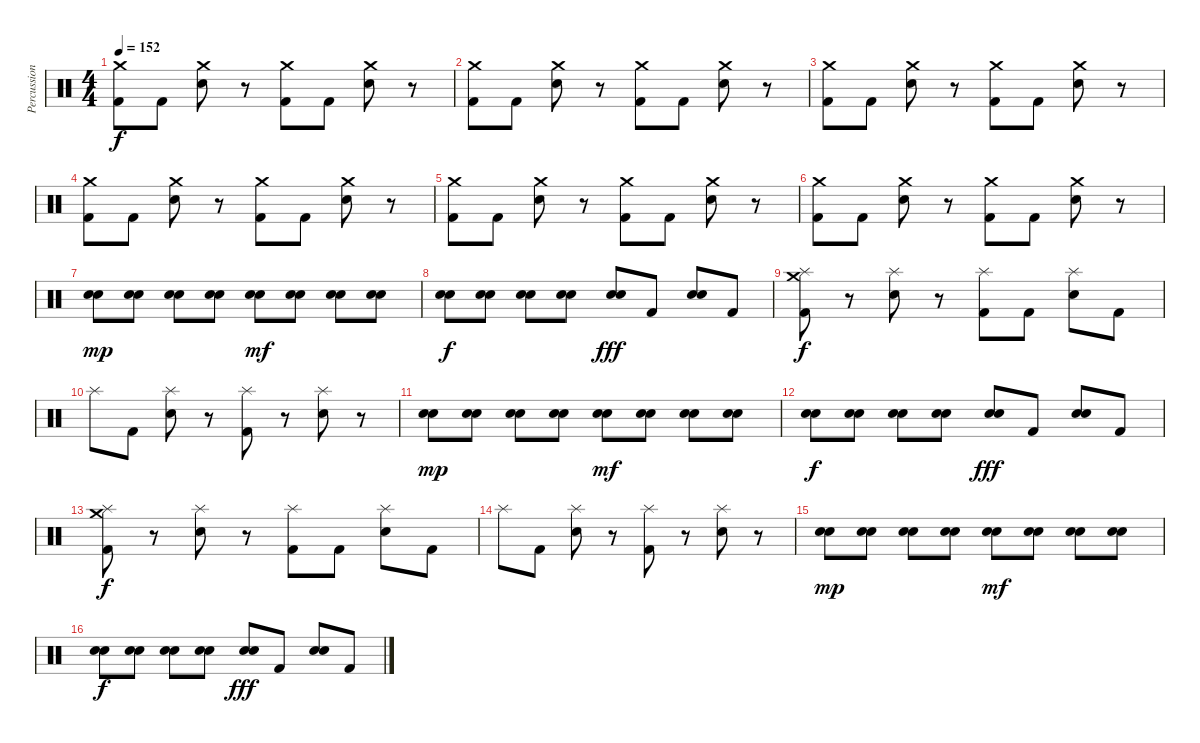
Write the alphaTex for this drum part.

\track ("Percussions" "Percussion") {instrument percussion}
\staff {score}
\articulation defaults
\ts (4 4)
\tempo 152
\clef neutral
\ks c
("Crash medium (hit)" "Kick (hit) 2").8{dy f} "Kick (hit) 2".8 ("Crash medium (hit)" "Electric Snare (hit)").8 r.8 ("Crash medium (hit)" "Kick (hit) 2").8 "Kick (hit) 2".8 ("Crash medium (hit)" "Electric Snare (hit)").8 r.8 |
("Crash medium (hit)" "Kick (hit) 2").8 "Kick (hit) 2".8 ("Crash medium (hit)" "Electric Snare (hit)").8 r.8 ("Crash medium (hit)" "Kick (hit) 2").8 "Kick (hit) 2".8 ("Crash medium (hit)" "Electric Snare (hit)").8 r.8 |
("Crash medium (hit)" "Kick (hit) 2").8 "Kick (hit) 2".8 ("Crash medium (hit)" "Electric Snare (hit)").8 r.8 ("Crash medium (hit)" "Kick (hit) 2").8 "Kick (hit) 2".8 ("Crash medium (hit)" "Electric Snare (hit)").8 r.8 |
("Crash medium (hit)" "Kick (hit) 2").8 "Kick (hit) 2".8 ("Crash medium (hit)" "Electric Snare (hit)").8 r.8 ("Crash medium (hit)" "Kick (hit) 2").8 "Kick (hit) 2".8 ("Crash medium (hit)" "Electric Snare (hit)").8 r.8 |
("Crash medium (hit)" "Kick (hit) 2").8 "Kick (hit) 2".8 ("Crash medium (hit)" "Electric Snare (hit)").8 r.8 ("Crash medium (hit)" "Kick (hit) 2").8 "Kick (hit) 2".8 ("Crash medium (hit)" "Electric Snare (hit)").8 r.8 |
("Crash medium (hit)" "Kick (hit) 2").8 "Kick (hit) 2".8 ("Crash medium (hit)" "Electric Snare (hit)").8 r.8 ("Crash medium (hit)" "Kick (hit) 2").8 "Kick (hit) 2".8 ("Crash medium (hit)" "Electric Snare (hit)").8 r.8 |
("Electric Snare (hit)" "Electric Snare (hit)").8{dy mp} ("Electric Snare (hit)" "Electric Snare (hit)").8 ("Electric Snare (hit)" "Electric Snare (hit)").8 ("Electric Snare (hit)" "Electric Snare (hit)").8 ("Electric Snare (hit)" "Electric Snare (hit)").8{dy mf} ("Electric Snare (hit)" "Electric Snare (hit)").8 ("Electric Snare (hit)" "Electric Snare (hit)").8 ("Electric Snare (hit)" "Electric Snare (hit)").8 |
("Electric Snare (hit)" "Electric Snare (hit)").8{dy f} ("Electric Snare (hit)" "Electric Snare (hit)").8 ("Electric Snare (hit)" "Electric Snare (hit)").8 ("Electric Snare (hit)" "Electric Snare (hit)").8 ("Electric Snare (hit)" "Electric Snare (hit)").8{dy fff} "Kick (hit) 2".8 ("Electric Snare (hit)" "Electric Snare (hit)").8 "Kick (hit) 2".8 |
("Splash (hit)" "Crash medium (hit)" "Kick (hit) 2").8{dy f} r.8 ("Splash (hit)" "Electric Snare (hit)").8 r.8 ("Splash (hit)" "Kick (hit) 2").8 "Kick (hit) 2".8 ("Splash (hit)" "Electric Snare (hit)").8 "Kick (hit) 2".8 |
"Splash (hit)".8 "Kick (hit) 2".8 ("Splash (hit)" "Electric Snare (hit)").8 r.8 ("Splash (hit)" "Kick (hit) 2").8 r.8 ("Splash (hit)" "Electric Snare (hit)").8 r.8 |
("Electric Snare (hit)" "Electric Snare (hit)").8{dy mp} ("Electric Snare (hit)" "Electric Snare (hit)").8 ("Electric Snare (hit)" "Electric Snare (hit)").8 ("Electric Snare (hit)" "Electric Snare (hit)").8 ("Electric Snare (hit)" "Electric Snare (hit)").8{dy mf} ("Electric Snare (hit)" "Electric Snare (hit)").8 ("Electric Snare (hit)" "Electric Snare (hit)").8 ("Electric Snare (hit)" "Electric Snare (hit)").8 |
("Electric Snare (hit)" "Electric Snare (hit)").8{dy f} ("Electric Snare (hit)" "Electric Snare (hit)").8 ("Electric Snare (hit)" "Electric Snare (hit)").8 ("Electric Snare (hit)" "Electric Snare (hit)").8 ("Electric Snare (hit)" "Electric Snare (hit)").8{dy fff} "Kick (hit) 2".8 ("Electric Snare (hit)" "Electric Snare (hit)").8 "Kick (hit) 2".8 |
("Splash (hit)" "Crash medium (hit)" "Kick (hit) 2").8{dy f} r.8 ("Splash (hit)" "Electric Snare (hit)").8 r.8 ("Splash (hit)" "Kick (hit) 2").8 "Kick (hit) 2".8 ("Splash (hit)" "Electric Snare (hit)").8 "Kick (hit) 2".8 |
"Splash (hit)".8 "Kick (hit) 2".8 ("Splash (hit)" "Electric Snare (hit)").8 r.8 ("Splash (hit)" "Kick (hit) 2").8 r.8 ("Splash (hit)" "Electric Snare (hit)").8 r.8 |
("Electric Snare (hit)" "Electric Snare (hit)").8{dy mp} ("Electric Snare (hit)" "Electric Snare (hit)").8 ("Electric Snare (hit)" "Electric Snare (hit)").8 ("Electric Snare (hit)" "Electric Snare (hit)").8 ("Electric Snare (hit)" "Electric Snare (hit)").8{dy mf} ("Electric Snare (hit)" "Electric Snare (hit)").8 ("Electric Snare (hit)" "Electric Snare (hit)").8 ("Electric Snare (hit)" "Electric Snare (hit)").8 |
("Electric Snare (hit)" "Electric Snare (hit)").8{dy f} ("Electric Snare (hit)" "Electric Snare (hit)").8 ("Electric Snare (hit)" "Electric Snare (hit)").8 ("Electric Snare (hit)" "Electric Snare (hit)").8 ("Electric Snare (hit)" "Electric Snare (hit)").8{dy fff} "Kick (hit) 2".8 ("Electric Snare (hit)" "Electric Snare (hit)").8 "Kick (hit) 2".8
